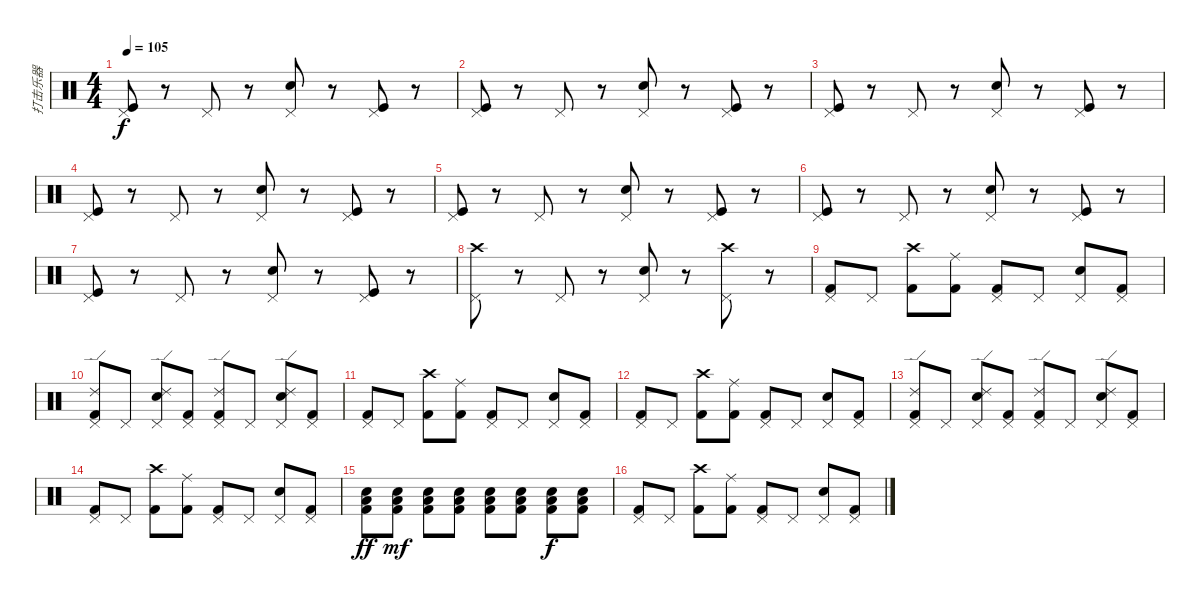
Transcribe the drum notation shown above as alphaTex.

\track ("打击乐器" "打击乐器") {instrument percussion}
\staff {score}
\articulation defaults
\ts (4 4)
\tempo 105
\clef neutral
\ks c
("Kick (hit)" "Pedal Hi-Hat (hit)").8{dy f} r.8 "Pedal Hi-Hat (hit)".8 r.8 ("Snare (hit) 2" "Pedal Hi-Hat (hit)").8 r.8 ("Kick (hit)" "Pedal Hi-Hat (hit)").8 r.8 |
("Kick (hit)" "Pedal Hi-Hat (hit)").8 r.8 "Pedal Hi-Hat (hit)".8 r.8 ("Snare (hit) 2" "Pedal Hi-Hat (hit)").8 r.8 ("Kick (hit)" "Pedal Hi-Hat (hit)").8 r.8 |
("Kick (hit)" "Pedal Hi-Hat (hit)").8 r.8 "Pedal Hi-Hat (hit)".8 r.8 ("Snare (hit) 2" "Pedal Hi-Hat (hit)").8 r.8 ("Kick (hit)" "Pedal Hi-Hat (hit)").8 r.8 |
("Kick (hit)" "Pedal Hi-Hat (hit)").8 r.8 "Pedal Hi-Hat (hit)".8 r.8 ("Snare (hit) 2" "Pedal Hi-Hat (hit)").8 r.8 ("Kick (hit)" "Pedal Hi-Hat (hit)").8 r.8 |
("Kick (hit)" "Pedal Hi-Hat (hit)").8 r.8 "Pedal Hi-Hat (hit)".8 r.8 ("Snare (hit) 2" "Pedal Hi-Hat (hit)").8 r.8 ("Kick (hit)" "Pedal Hi-Hat (hit)").8 r.8 |
("Kick (hit)" "Pedal Hi-Hat (hit)").8 r.8 "Pedal Hi-Hat (hit)".8 r.8 ("Snare (hit) 2" "Pedal Hi-Hat (hit)").8 r.8 ("Kick (hit)" "Pedal Hi-Hat (hit)").8 r.8 |
("Kick (hit)" "Pedal Hi-Hat (hit)").8 r.8 "Pedal Hi-Hat (hit)".8 r.8 ("Snare (hit) 2" "Pedal Hi-Hat (hit)").8 r.8 ("Kick (hit)" "Pedal Hi-Hat (hit)").8 r.8 |
("Crash high (hit)" "Pedal Hi-Hat (hit)").8 r.8 "Pedal Hi-Hat (hit)".8 r.8 ("Snare (hit) 2" "Pedal Hi-Hat (hit)").8 r.8 ("Crash high (hit)" "Pedal Hi-Hat (hit)").8 r.8 |
("Pedal Hi-Hat (hit)" "Kick (hit) 2").8 "Pedal Hi-Hat (hit)".8 ("Crash high (hit)" "Kick (hit) 2").8 ("Ride (middle)" "Kick (hit) 2").8 ("Pedal Hi-Hat (hit)" "Kick (hit) 2").8 "Pedal Hi-Hat (hit)".8 ("Pedal Hi-Hat (hit)" "Snare (hit) 2").8 ("Pedal Hi-Hat (hit)" "Kick (hit) 2").8 |
("Ride (edge) 2" "Pedal Hi-Hat (hit)" "Kick (hit) 2").8 "Pedal Hi-Hat (hit)".8 ("Ride (edge) 2" "Pedal Hi-Hat (hit)" "Snare (hit) 2").8 ("Pedal Hi-Hat (hit)" "Kick (hit) 2").8 ("Ride (edge) 2" "Pedal Hi-Hat (hit)" "Kick (hit) 2").8 "Pedal Hi-Hat (hit)".8 ("Ride (edge) 2" "Pedal Hi-Hat (hit)" "Snare (hit) 2").8 ("Pedal Hi-Hat (hit)" "Kick (hit) 2").8 |
("Pedal Hi-Hat (hit)" "Kick (hit) 2").8 "Pedal Hi-Hat (hit)".8 ("Crash high (hit)" "Kick (hit) 2").8 ("Ride (middle)" "Kick (hit) 2").8 ("Pedal Hi-Hat (hit)" "Kick (hit) 2").8 "Pedal Hi-Hat (hit)".8 ("Pedal Hi-Hat (hit)" "Snare (hit) 2").8 ("Pedal Hi-Hat (hit)" "Kick (hit) 2").8 |
("Pedal Hi-Hat (hit)" "Kick (hit) 2").8 "Pedal Hi-Hat (hit)".8 ("Crash high (hit)" "Kick (hit) 2").8 ("Ride (middle)" "Kick (hit) 2").8 ("Pedal Hi-Hat (hit)" "Kick (hit) 2").8 "Pedal Hi-Hat (hit)".8 ("Pedal Hi-Hat (hit)" "Snare (hit) 2").8 ("Pedal Hi-Hat (hit)" "Kick (hit) 2").8 |
("Ride (edge) 2" "Pedal Hi-Hat (hit)" "Kick (hit) 2").8 "Pedal Hi-Hat (hit)".8 ("Ride (edge) 2" "Pedal Hi-Hat (hit)" "Snare (hit) 2").8 ("Pedal Hi-Hat (hit)" "Kick (hit) 2").8 ("Ride (edge) 2" "Pedal Hi-Hat (hit)" "Kick (hit) 2").8 "Pedal Hi-Hat (hit)".8 ("Ride (edge) 2" "Pedal Hi-Hat (hit)" "Snare (hit) 2").8 ("Pedal Hi-Hat (hit)" "Kick (hit) 2").8 |
("Pedal Hi-Hat (hit)" "Kick (hit) 2").8 "Pedal Hi-Hat (hit)".8 ("Crash high (hit)" "Kick (hit) 2").8 ("Ride (middle)" "Kick (hit) 2").8 ("Pedal Hi-Hat (hit)" "Kick (hit) 2").8 "Pedal Hi-Hat (hit)".8 ("Pedal Hi-Hat (hit)" "Snare (hit) 2").8 ("Pedal Hi-Hat (hit)" "Kick (hit) 2").8 |
("Low Tom (hit)" "Snare (hit) 2" "Kick (hit) 2").8{dy ff} ("Kick (hit) 2" "Snare (hit) 2" "Low Tom (hit)").8{dy mf} ("Kick (hit) 2" "Snare (hit) 2" "Low Tom (hit)").8 ("Kick (hit) 2" "Snare (hit) 2" "Low Tom (hit)").8 ("Kick (hit) 2" "Snare (hit) 2" "Low Tom (hit)").8 ("Kick (hit) 2" "Snare (hit) 2" "Low Tom (hit)").8 ("Kick (hit) 2" "Snare (hit) 2" "Low Tom (hit)").8{dy f} ("Kick (hit) 2" "Snare (hit) 2" "Low Tom (hit)").8 |
("Pedal Hi-Hat (hit)" "Kick (hit) 2").8 "Pedal Hi-Hat (hit)".8 ("Crash high (hit)" "Kick (hit) 2").8 ("Ride (middle)" "Kick (hit) 2").8 ("Pedal Hi-Hat (hit)" "Kick (hit) 2").8 "Pedal Hi-Hat (hit)".8 ("Pedal Hi-Hat (hit)" "Snare (hit) 2").8 ("Pedal Hi-Hat (hit)" "Kick (hit) 2").8
